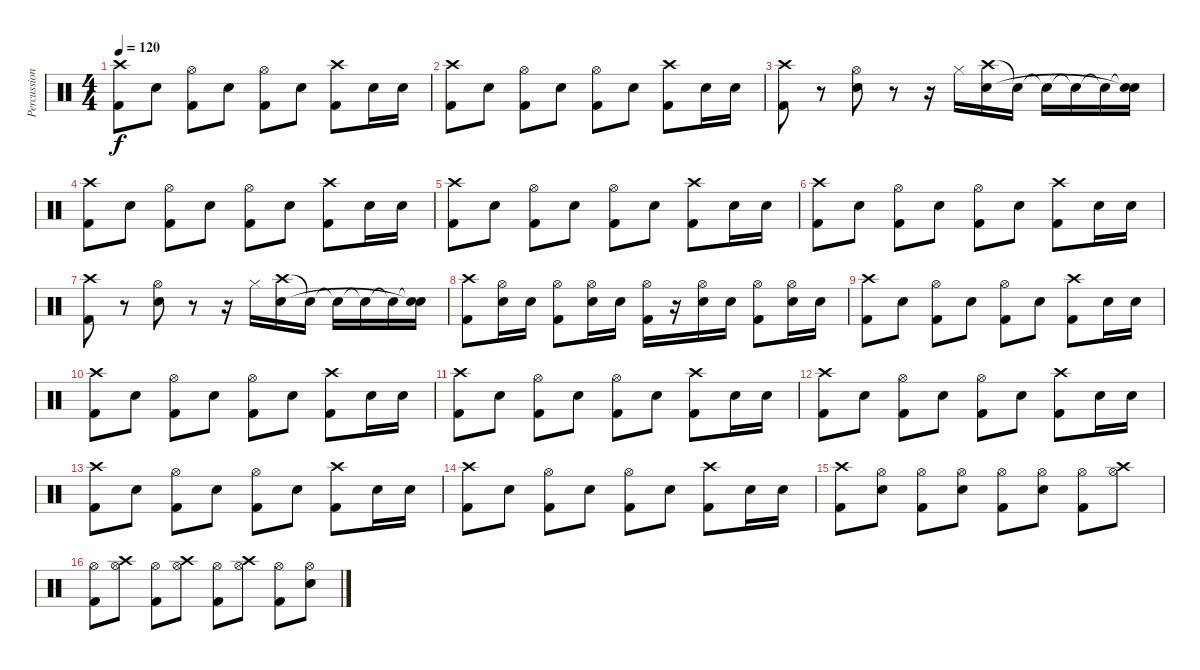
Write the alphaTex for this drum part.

\track ("Percussion" "Percussion") {instrument percussion}
\staff {score}
\articulation defaults
\ts (4 4)
\tempo 120
\clef neutral
\ks c
("Crash high (hit)" "Kick (hit) 2").8{dy f} "Electric Snare (hit)".8 ("Hi-Hat (open)" "Kick (hit) 2").8 "Electric Snare (hit)".8 ("Hi-Hat (open)" "Kick (hit) 2").8 "Electric Snare (hit)".8 ("Crash high (hit)" "Kick (hit) 2").8 "Electric Snare (hit)".16 "Electric Snare (hit)".16 |
("Crash high (hit)" "Kick (hit) 2").8 "Electric Snare (hit)".8 ("Hi-Hat (open)" "Kick (hit) 2").8 "Electric Snare (hit)".8 ("Hi-Hat (open)" "Kick (hit) 2").8 "Electric Snare (hit)".8 ("Crash high (hit)" "Kick (hit) 2").8 "Electric Snare (hit)".16 "Electric Snare (hit)".16 |
("Crash high (hit)" "Kick (hit) 2").8 r.8 ("Hi-Hat (open)" "Electric Snare (hit)").8 r.8 r.16 "Hi-Hat (closed)".16 ("Crash high (hit)" "Electric Snare (hit)").16 "Snare (hit)"{t}.16 "Snare (hit)"{t}.16 "Snare (hit)"{t}.16 "Snare (hit)"{t}.16 ("Snare (hit)"{t} "Snare (hit)"{t}).16 |
("Crash high (hit)" "Kick (hit) 2").8 "Electric Snare (hit)".8 ("Hi-Hat (open)" "Kick (hit) 2").8 "Electric Snare (hit)".8 ("Hi-Hat (open)" "Kick (hit) 2").8 "Electric Snare (hit)".8 ("Crash high (hit)" "Kick (hit) 2").8 "Electric Snare (hit)".16 "Electric Snare (hit)".16 |
("Crash high (hit)" "Kick (hit) 2").8 "Electric Snare (hit)".8 ("Hi-Hat (open)" "Kick (hit) 2").8 "Electric Snare (hit)".8 ("Hi-Hat (open)" "Kick (hit) 2").8 "Electric Snare (hit)".8 ("Crash high (hit)" "Kick (hit) 2").8 "Electric Snare (hit)".16 "Electric Snare (hit)".16 |
("Crash high (hit)" "Kick (hit) 2").8 "Electric Snare (hit)".8 ("Hi-Hat (open)" "Kick (hit) 2").8 "Electric Snare (hit)".8 ("Hi-Hat (open)" "Kick (hit) 2").8 "Electric Snare (hit)".8 ("Crash high (hit)" "Kick (hit) 2").8 "Electric Snare (hit)".16 "Electric Snare (hit)".16 |
("Crash high (hit)" "Kick (hit) 2").8 r.8 ("Hi-Hat (open)" "Electric Snare (hit)").8 r.8 r.16 "Hi-Hat (closed)".16 ("Crash high (hit)" "Electric Snare (hit)").16 "Snare (hit)"{t}.16 "Snare (hit)"{t}.16 "Snare (hit)"{t}.16 "Snare (hit)"{t}.16 ("Snare (hit)"{t} "Snare (hit)"{t}).16 |
("Crash high (hit)" "Kick (hit) 2").8 ("Hi-Hat (open)" "Electric Snare (hit)").16 "Electric Snare (hit)".16 ("Hi-Hat (open)" "Kick (hit) 2").8 ("Hi-Hat (open)" "Electric Snare (hit)").16 "Electric Snare (hit)".16 ("Hi-Hat (open)" "Kick (hit) 2").16 r.16 ("Hi-Hat (open)" "Electric Snare (hit)").16 "Electric Snare (hit)".16 ("Hi-Hat (open)" "Kick (hit) 2").8 ("Hi-Hat (open)" "Electric Snare (hit)").16 "Electric Snare (hit)".16 |
("Crash high (hit)" "Kick (hit) 2").8 "Electric Snare (hit)".8 ("Hi-Hat (open)" "Kick (hit) 2").8 "Electric Snare (hit)".8 ("Hi-Hat (open)" "Kick (hit) 2").8 "Electric Snare (hit)".8 ("Crash high (hit)" "Kick (hit) 2").8 "Electric Snare (hit)".16 "Electric Snare (hit)".16 |
("Crash high (hit)" "Kick (hit) 2").8 "Electric Snare (hit)".8 ("Hi-Hat (open)" "Kick (hit) 2").8 "Electric Snare (hit)".8 ("Hi-Hat (open)" "Kick (hit) 2").8 "Electric Snare (hit)".8 ("Crash high (hit)" "Kick (hit) 2").8 "Electric Snare (hit)".16 "Electric Snare (hit)".16 |
("Crash high (hit)" "Kick (hit) 2").8 "Electric Snare (hit)".8 ("Hi-Hat (open)" "Kick (hit) 2").8 "Electric Snare (hit)".8 ("Hi-Hat (open)" "Kick (hit) 2").8 "Electric Snare (hit)".8 ("Crash high (hit)" "Kick (hit) 2").8 "Electric Snare (hit)".16 "Electric Snare (hit)".16 |
("Crash high (hit)" "Kick (hit) 2").8 "Electric Snare (hit)".8 ("Hi-Hat (open)" "Kick (hit) 2").8 "Electric Snare (hit)".8 ("Hi-Hat (open)" "Kick (hit) 2").8 "Electric Snare (hit)".8 ("Crash high (hit)" "Kick (hit) 2").8 "Electric Snare (hit)".16 "Electric Snare (hit)".16 |
("Crash high (hit)" "Kick (hit) 2").8 "Electric Snare (hit)".8 ("Hi-Hat (open)" "Kick (hit) 2").8 "Electric Snare (hit)".8 ("Hi-Hat (open)" "Kick (hit) 2").8 "Electric Snare (hit)".8 ("Crash high (hit)" "Kick (hit) 2").8 "Electric Snare (hit)".16 "Electric Snare (hit)".16 |
("Crash high (hit)" "Kick (hit) 2").8 "Electric Snare (hit)".8 ("Hi-Hat (open)" "Kick (hit) 2").8 "Electric Snare (hit)".8 ("Hi-Hat (open)" "Kick (hit) 2").8 "Electric Snare (hit)".8 ("Crash high (hit)" "Kick (hit) 2").8 "Electric Snare (hit)".16 "Electric Snare (hit)".16 |
("Kick (hit) 2" "Crash high (hit)").8 ("Electric Snare (hit)" "Hi-Hat (open)").8 ("Kick (hit) 2" "Hi-Hat (open)").8 ("Electric Snare (hit)" "Hi-Hat (open)").8 ("Kick (hit) 2" "Hi-Hat (open)").8 ("Electric Snare (hit)" "Hi-Hat (open)").8 ("Kick (hit) 2" "Hi-Hat (open)").8 ("Crash high (hit)" "Hi-Hat (open)").8 |
("Kick (hit) 2" "Hi-Hat (open)").8 ("Crash high (hit)" "Hi-Hat (open)").8 ("Kick (hit) 2" "Hi-Hat (open)").8 ("Crash high (hit)" "Hi-Hat (open)").8 ("Kick (hit) 2" "Hi-Hat (open)").8 ("Crash high (hit)" "Hi-Hat (open)").8 ("Kick (hit) 2" "Hi-Hat (open)").8 ("Electric Snare (hit)" "Hi-Hat (open)").8
